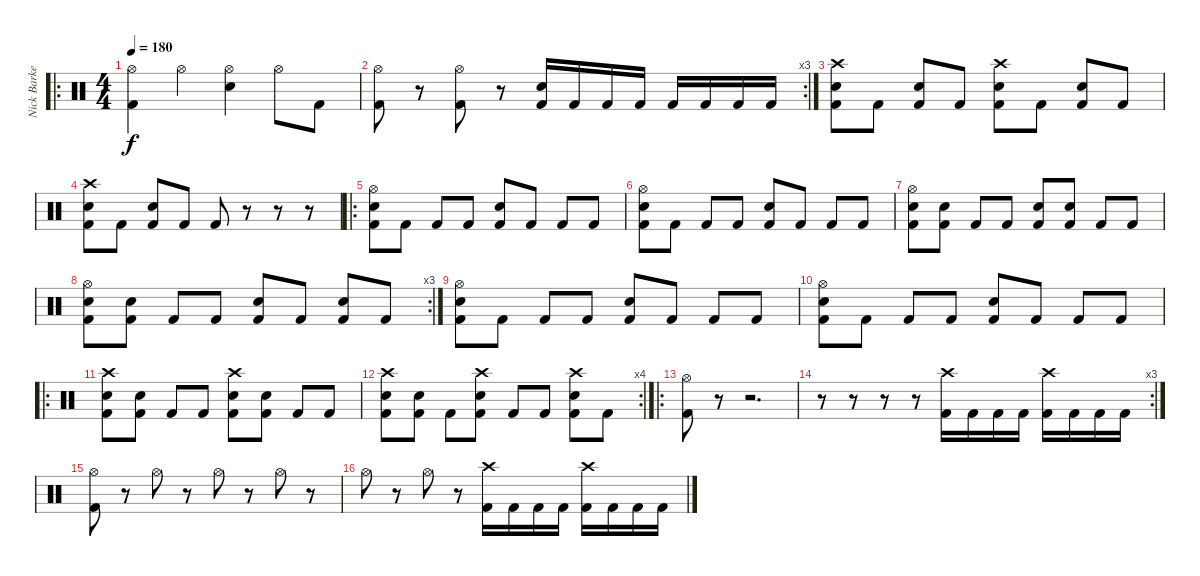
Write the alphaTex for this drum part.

\track ("Nick Barker" "Nick Barke") {instrument percussion}
\staff {score}
\articulation defaults
\ro
\ts (4 4)
\tempo 180
\clef neutral
\ks c
("Hi-Hat (open)" "Kick (hit) 2").4{dy f} "Hi-Hat (open)".4 ("Hi-Hat (open)" "Snare (hit) 2").4 "Hi-Hat (open)".8 "Kick (hit) 2".8 |
\rc 3
("Hi-Hat (open)" "Kick (hit) 2").8 r.8 ("Hi-Hat (open)" "Kick (hit) 2").8 r.8 ("Snare (hit) 2" "Kick (hit) 2").16 "Kick (hit) 2".16 "Kick (hit) 2".16 "Kick (hit) 2".16 "Kick (hit) 2".16 "Kick (hit) 2".16 "Kick (hit) 2".16 "Kick (hit) 2".16 |
("Crash high (hit)" "Snare (hit) 2" "Kick (hit) 2").8 "Kick (hit) 2".8 ("Snare (hit) 2" "Kick (hit) 2").8 "Kick (hit) 2".8 ("Crash high (hit)" "Snare (hit) 2" "Kick (hit) 2").8 "Kick (hit) 2".8 ("Snare (hit) 2" "Kick (hit) 2").8 "Kick (hit) 2".8 |
("Crash high (hit)" "Snare (hit) 2" "Kick (hit) 2").8 "Kick (hit) 2".8 ("Snare (hit) 2" "Kick (hit) 2").8 "Kick (hit) 2".8 "Kick (hit) 2".8 r.8 r.8 r.8 |
\ro
("Hi-Hat (open)" "Snare (hit) 2" "Kick (hit) 2").8 "Kick (hit) 2".8 "Kick (hit) 2".8 "Kick (hit) 2".8 ("Snare (hit) 2" "Kick (hit) 2").8 "Kick (hit) 2".8 "Kick (hit) 2".8 "Kick (hit) 2".8 |
("Hi-Hat (open)" "Snare (hit) 2" "Kick (hit) 2").8 "Kick (hit) 2".8 "Kick (hit) 2".8 "Kick (hit) 2".8 ("Snare (hit) 2" "Kick (hit) 2").8 "Kick (hit) 2".8 "Kick (hit) 2".8 "Kick (hit) 2".8 |
("Hi-Hat (open)" "Snare (hit) 2" "Kick (hit) 2").8 ("Snare (hit) 2" "Kick (hit) 2").8 "Kick (hit) 2".8 "Kick (hit) 2".8 ("Snare (hit) 2" "Kick (hit) 2").8 ("Snare (hit) 2" "Kick (hit) 2").8 "Kick (hit) 2".8 "Kick (hit) 2".8 |
\rc 3
("Hi-Hat (open)" "Snare (hit) 2" "Kick (hit) 2").8 ("Snare (hit) 2" "Kick (hit) 2").8 "Kick (hit) 2".8 "Kick (hit) 2".8 ("Snare (hit) 2" "Kick (hit) 2").8 "Kick (hit) 2".8 ("Snare (hit) 2" "Kick (hit) 2").8 "Kick (hit) 2".8 |
("Hi-Hat (open)" "Snare (hit) 2" "Kick (hit) 2").8 "Kick (hit) 2".8 "Kick (hit) 2".8 "Kick (hit) 2".8 ("Snare (hit) 2" "Kick (hit) 2").8 "Kick (hit) 2".8 "Kick (hit) 2".8 "Kick (hit) 2".8 |
("Hi-Hat (open)" "Snare (hit) 2" "Kick (hit) 2").8 "Kick (hit) 2".8 "Kick (hit) 2".8 "Kick (hit) 2".8 ("Snare (hit) 2" "Kick (hit) 2").8 "Kick (hit) 2".8 "Kick (hit) 2".8 "Kick (hit) 2".8 |
\ro
("Crash high (hit)" "Snare (hit) 2" "Kick (hit) 2").8 ("Snare (hit) 2" "Kick (hit) 2").8 "Kick (hit) 2".8 "Kick (hit) 2".8 ("Crash high (hit)" "Snare (hit) 2" "Kick (hit) 2").8 ("Snare (hit) 2" "Kick (hit) 2").8 "Kick (hit) 2".8 "Kick (hit) 2".8 |
\rc 4
("Crash high (hit)" "Snare (hit) 2" "Kick (hit) 2").8 ("Snare (hit) 2" "Kick (hit) 2").8 "Kick (hit) 2".8 ("Crash high (hit)" "Snare (hit) 2" "Kick (hit) 2").8 "Kick (hit) 2".8 "Kick (hit) 2".8 ("Crash high (hit)" "Snare (hit) 2" "Kick (hit) 2").8 "Kick (hit) 2".8 |
\ro
("Hi-Hat (open)" "Kick (hit) 2").8 r.8 r.2{d} |
\rc 3
r.8 r.8 r.8 r.8 ("Crash high (hit)" "Kick (hit) 2").16 "Kick (hit) 2".16 "Kick (hit) 2".16 "Kick (hit) 2".16 ("Crash high (hit)" "Kick (hit) 2").16 "Kick (hit) 2".16 "Kick (hit) 2".16 "Kick (hit) 2".16 |
("Hi-Hat (open)" "Kick (hit) 2").8 r.8 "Hi-Hat (open)".8 r.8 "Hi-Hat (open)".8 r.8 "Hi-Hat (open)".8 r.8 |
"Hi-Hat (open)".8 r.8 "Hi-Hat (open)".8 r.8 ("Crash high (hit)" "Kick (hit) 2").16 "Kick (hit) 2".16 "Kick (hit) 2".16 "Kick (hit) 2".16 ("Crash high (hit)" "Kick (hit) 2").16 "Kick (hit) 2".16 "Kick (hit) 2".16 "Kick (hit) 2".16
